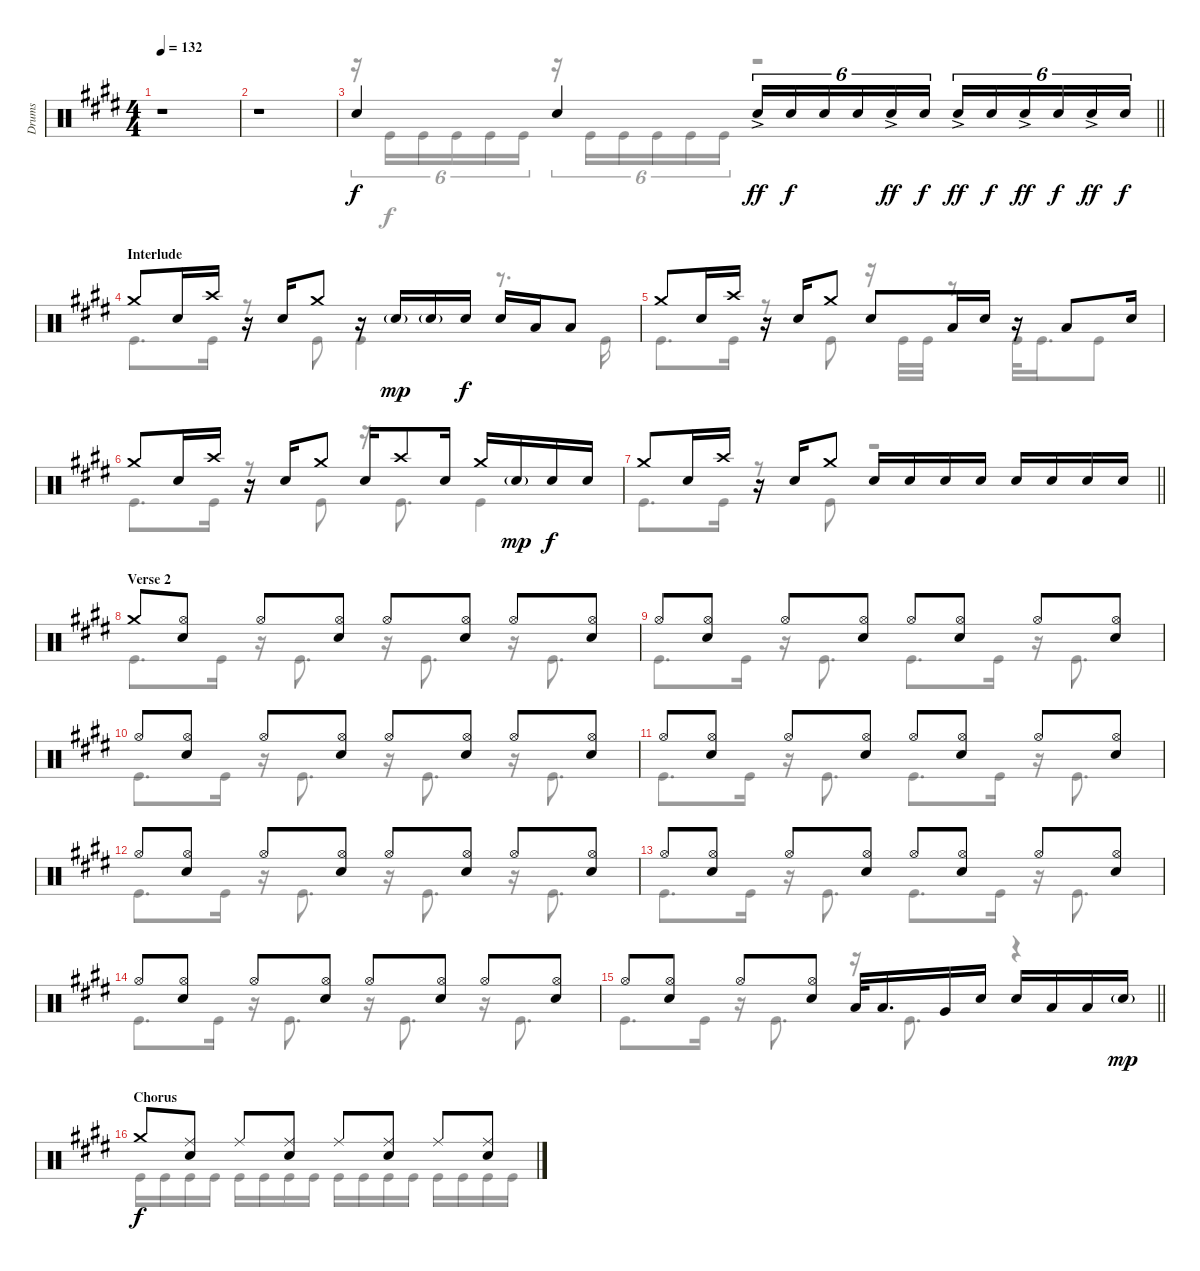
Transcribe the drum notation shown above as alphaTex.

\track ("Drums" "Drums") {instrument percussion}
\staff {score}
\articulation defaults
\voice
\ts (4 4)
\tempo 132
\clef neutral
\ks c#minor
r.1{dy f} |
r.1 |
\barLineRight lightlight "Electric Snare (hit)".4 "Electric Snare (hit)".4 "Electric Snare (hit)"{ac}.16{tu (6 4) dy ff} "Electric Snare (hit)".16{tu (6 4) dy f} "Electric Snare (hit)".16{tu (6 4)} "Electric Snare (hit)".16{tu (6 4)} "Electric Snare (hit)"{ac}.16{tu (6 4) dy ff} "Electric Snare (hit)".16{tu (6 4) dy f} "Electric Snare (hit)"{ac}.16{tu (6 4) dy ff} "Electric Snare (hit)".16{tu (6 4) dy f} "Electric Snare (hit)"{ac}.16{tu (6 4) dy ff} "Electric Snare (hit)".16{tu (6 4) dy f} "Electric Snare (hit)"{ac}.16{tu (6 4) dy ff} "Electric Snare (hit)".16{tu (6 4) dy f}
|
\section ("" "Interlude")
"Crash medium (hit)".8 "Electric Snare (hit)".16 "Crash high (hit)".16 r.16 "Electric Snare (hit)".16 "Crash medium (hit)".8 r.16 "Electric Snare (hit)"{g}.16{dy mp} "Electric Snare (hit)"{g}.16 "Electric Snare (hit)".16{dy f} "Electric Snare (hit)".16 "Low Tom (hit)".16 "Low Floor Tom (hit)".8 |
"Crash medium (hit)".8 "Electric Snare (hit)".16 "Crash high (hit)".16 r.16 "Electric Snare (hit)".16 "Crash medium (hit)".8 "Electric Snare (hit)".8 "Low Tom (hit)".16 "Electric Snare (hit)".16 r.16 "Low Tom (hit)".8 "Electric Snare (hit)".16 |
"Crash medium (hit)".8 "Electric Snare (hit)".16 "Crash high (hit)".16 r.16 "Electric Snare (hit)".16 "Crash medium (hit)".8 "Electric Snare (hit)".16 "Crash high (hit)".8 "Electric Snare (hit)".16 "Crash medium (hit)".16 "Electric Snare (hit)"{g}.16{dy mp} "Electric Snare (hit)".16{dy f} "Electric Snare (hit)".16 |
\barLineRight lightlight "Crash medium (hit)".8 "Electric Snare (hit)".16 "Crash high (hit)".16
r.16 "Electric Snare (hit)".16 "Crash medium (hit)".8 "Electric Snare (hit)".16 "Electric Snare (hit)".16 "Electric Snare (hit)".16 "Electric Snare (hit)".16 "Electric Snare (hit)".16 "Electric Snare (hit)".16 "Electric Snare (hit)".16 "Electric Snare (hit)".16 |
\section ("" "Verse 2")
"Crash medium (hit)".8 ("Hi-Hat (open)" "Electric Snare (hit)").8 "Hi-Hat (open)".8 ("Hi-Hat (open)" "Electric Snare (hit)").8 "Hi-Hat (open)".8 ("Hi-Hat (open)" "Electric Snare (hit)").8 "Hi-Hat (open)".8 ("Hi-Hat (open)" "Electric Snare (hit)").8 |
"Hi-Hat (open)".8 ("Hi-Hat (open)" "Electric Snare (hit)").8 "Hi-Hat (open)".8 ("Hi-Hat (open)" "Electric Snare (hit)").8 "Hi-Hat (open)".8 ("Hi-Hat (open)" "Electric Snare (hit)").8 "Hi-Hat (open)".8 ("Hi-Hat (open)" "Electric Snare (hit)").8 |
"Hi-Hat (open)".8 ("Hi-Hat (open)" "Electric Snare (hit)").8 "Hi-Hat (open)".8 ("Hi-Hat (open)" "Electric Snare (hit)").8 "Hi-Hat (open)".8 ("Hi-Hat (open)" "Electric Snare (hit)").8 "Hi-Hat (open)".8 ("Hi-Hat (open)" "Electric Snare (hit)").8 |
"Hi-Hat (open)".8 ("Hi-Hat (open)" "Electric Snare (hit)").8 "Hi-Hat (open)".8 ("Hi-Hat (open)" "Electric Snare (hit)").8 "Hi-Hat (open)".8 ("Hi-Hat (open)" "Electric Snare (hit)").8 "Hi-Hat (open)".8 ("Hi-Hat (open)" "Electric Snare (hit)").8 |
"Hi-Hat (open)".8 ("Hi-Hat (open)" "Electric Snare (hit)").8 "Hi-Hat (open)".8 ("Hi-Hat (open)" "Electric Snare (hit)").8 "Hi-Hat (open)".8 ("Hi-Hat (open)" "Electric Snare (hit)").8 "Hi-Hat (open)".8 ("Hi-Hat (open)" "Electric Snare (hit)").8 |
"Hi-Hat (open)".8 ("Hi-Hat (open)" "Electric Snare (hit)").8 "Hi-Hat (open)".8 ("Hi-Hat (open)" "Electric Snare (hit)").8 "Hi-Hat (open)".8 ("Hi-Hat (open)" "Electric Snare (hit)").8 "Hi-Hat (open)".8 ("Hi-Hat (open)" "Electric Snare (hit)").8 |
"Hi-Hat (open)".8 ("Hi-Hat (open)" "Electric Snare (hit)").8 "Hi-Hat (open)".8 ("Hi-Hat (open)" "Electric Snare (hit)").8 "Hi-Hat (open)".8 ("Hi-Hat (open)" "Electric Snare (hit)").8 "Hi-Hat (open)".8 ("Hi-Hat (open)" "Electric Snare (hit)").8 |
\barLineRight lightlight "Hi-Hat (open)".8
("Hi-Hat (open)" "Electric Snare (hit)").8 "Hi-Hat (open)".8 ("Hi-Hat (open)" "Electric Snare (hit)").8 "Low Tom (hit)".32 "Low Tom (hit)".16{d} "Very Low Tom (hit)".16 "Electric Snare (hit)".16 "Electric Snare (hit)".16 "Low Tom (hit)".16 "Low Floor Tom (hit)".16 "Electric Snare (hit)"{g}.16{dy mp} |
\section ("" "Chorus")
"Crash medium (hit)".8{dy f} ("Ride (middle)" "Electric Snare (hit)").8 "Ride (middle)".8 ("Ride (middle)" "Electric Snare (hit)").8 "Ride (middle)".8 ("Ride (middle)" "Electric Snare (hit)").8 "Ride (middle)".8 ("Ride (middle)" "Electric Snare (hit)").8
\voice
\clef neutral
\ottava regular
\simile none
\ks c#minor
r.1{dy f} |
r.1 |
\barLineRight lightlight
r.16{tu (6 4)} "Kick (hit)".16{tu (6 4)} "Kick (hit)".16{tu (6 4)} "Kick (hit)".16{tu (6 4)} "Kick (hit)".16{tu (6 4)} "Kick (hit)".16{tu (6 4)} r.16{tu (6 4)} "Kick (hit)".16{tu (6 4)} "Kick (hit)".16{tu (6 4)} "Kick (hit)".16{tu (6 4)} "Kick (hit)".16{tu (6 4)} "Kick (hit)".16{tu (6 4)} r.2 |
"Kick (hit)".8{d} "Kick (hit)".16 r.8 "Kick (hit)".8 "Kick (hit)".4 r.8{d} "Kick (hit)".16 |
"Kick (hit)".8{d} "Kick (hit)".16 r.8 "Kick (hit)".8 r.16 "Kick (hit)".32 "Kick (hit)".32 r.8 "Kick (hit)".32 "Kick (hit)".16{d} "Kick (hit)".8 |
"Kick (hit)".8{d} "Kick (hit)".16 r.8 "Kick (hit)".8 r.16 "Kick (hit)".8{d} "Kick (hit)".4 |
\barLineRight lightlight "Kick (hit)".8{d} "Kick (hit)".16
r.8 "Kick (hit)".8 r.2 |
"Kick (hit)".8{d} "Kick (hit)".16 r.16 "Kick (hit)".8{d} r.16 "Kick (hit)".8{d} r.16 "Kick (hit)".8{d} |
"Kick (hit)".8{d} "Kick (hit)".16 r.16 "Kick (hit)".8{d} "Kick (hit)".8{d} "Kick (hit)".16 r.16 "Kick (hit)".8{d} |
"Kick (hit)".8{d} "Kick (hit)".16 r.16 "Kick (hit)".8{d} r.16 "Kick (hit)".8{d} r.16 "Kick (hit)".8{d} |
"Kick (hit)".8{d} "Kick (hit)".16 r.16 "Kick (hit)".8{d} "Kick (hit)".8{d} "Kick (hit)".16 r.16 "Kick (hit)".8{d} |
"Kick (hit)".8{d} "Kick (hit)".16 r.16 "Kick (hit)".8{d} r.16 "Kick (hit)".8{d} r.16 "Kick (hit)".8{d} |
"Kick (hit)".8{d} "Kick (hit)".16 r.16 "Kick (hit)".8{d} "Kick (hit)".8{d} "Kick (hit)".16 r.16 "Kick (hit)".8{d} |
"Kick (hit)".8{d} "Kick (hit)".16 r.16 "Kick (hit)".8{d} r.16 "Kick (hit)".8{d} r.16 "Kick (hit)".8{d} |
\barLineRight lightlight "Kick (hit)".8{d} "Kick (hit)".16
r.16 "Kick (hit)".8{d} r.16 "Kick (hit)".8{d} r.4 |
"Kick (hit)".16 "Kick (hit)".16 "Kick (hit)".16 "Kick (hit)".16 "Kick (hit)".16 "Kick (hit)".16 "Kick (hit)".16 "Kick (hit)".16 "Kick (hit)".16 "Kick (hit)".16 "Kick (hit)".16 "Kick (hit)".16 "Kick (hit)".16 "Kick (hit)".16 "Kick (hit)".16 "Kick (hit)".16
